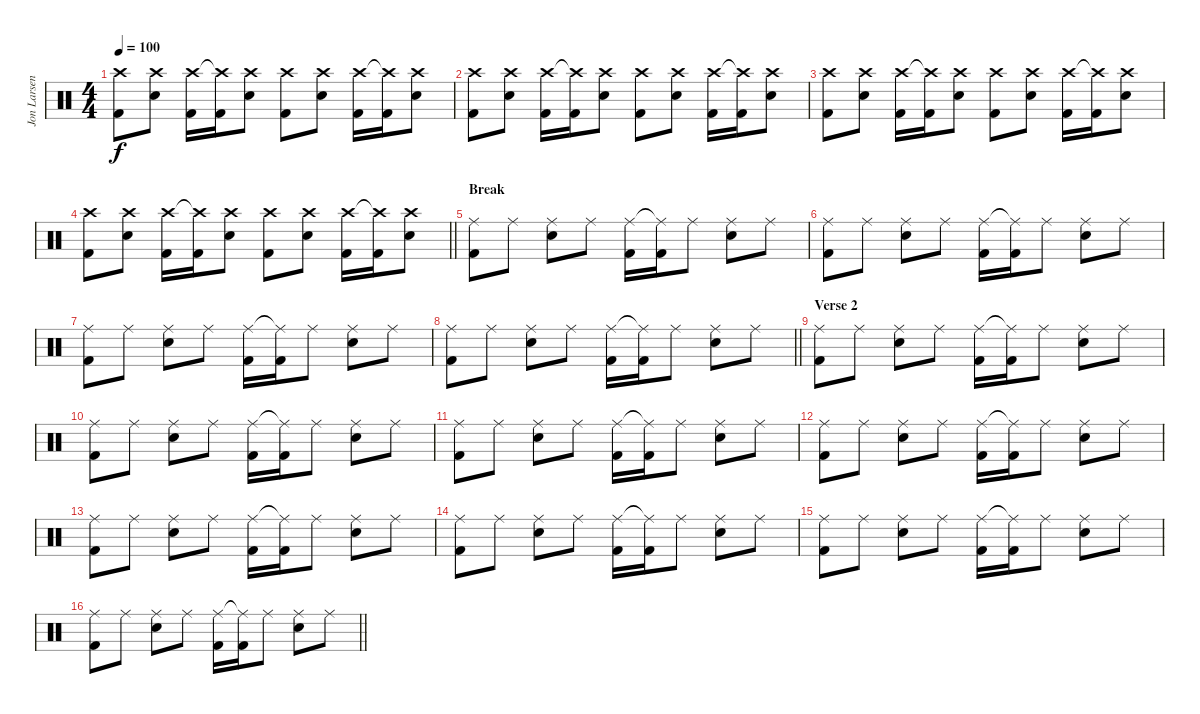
\track ("Jon Larsen" "Jon Larsen") {instrument percussion}
\staff {score}
\articulation defaults
\ts (4 4)
\tempo 100
\clef neutral
\ks c
("Crash high (hit)" "Kick (hit) 2").8{dy f} ("Crash high (hit)" "Snare (hit) 2").8 ("Crash high (hit)" "Kick (hit) 2").16 ("Crash high (hit)"{t} "Kick (hit) 2").16 ("Crash high (hit)" "Snare (hit) 2").8 ("Crash high (hit)" "Kick (hit) 2").8 ("Crash high (hit)" "Snare (hit) 2").8 ("Crash high (hit)" "Kick (hit) 2").16 ("Crash high (hit)"{t} "Kick (hit) 2").16 ("Crash high (hit)" "Snare (hit) 2").8 |
("Crash high (hit)" "Kick (hit) 2").8 ("Crash high (hit)" "Snare (hit) 2").8 ("Crash high (hit)" "Kick (hit) 2").16 ("Crash high (hit)"{t} "Kick (hit) 2").16 ("Crash high (hit)" "Snare (hit) 2").8 ("Crash high (hit)" "Kick (hit) 2").8 ("Crash high (hit)" "Snare (hit) 2").8 ("Crash high (hit)" "Kick (hit) 2").16 ("Crash high (hit)"{t} "Kick (hit) 2").16 ("Crash high (hit)" "Snare (hit) 2").8 |
("Crash high (hit)" "Kick (hit) 2").8 ("Crash high (hit)" "Snare (hit) 2").8 ("Crash high (hit)" "Kick (hit) 2").16 ("Crash high (hit)"{t} "Kick (hit) 2").16 ("Crash high (hit)" "Snare (hit) 2").8 ("Crash high (hit)" "Kick (hit) 2").8 ("Crash high (hit)" "Snare (hit) 2").8 ("Crash high (hit)" "Kick (hit) 2").16 ("Crash high (hit)"{t} "Kick (hit) 2").16 ("Crash high (hit)" "Snare (hit) 2").8 |
\barLineRight lightlight
("Crash high (hit)" "Kick (hit) 2").8 ("Crash high (hit)" "Snare (hit) 2").8 ("Crash high (hit)" "Kick (hit) 2").16 ("Crash high (hit)"{t} "Kick (hit) 2").16 ("Crash high (hit)" "Snare (hit) 2").8 ("Crash high (hit)" "Kick (hit) 2").8 ("Crash high (hit)" "Snare (hit) 2").8 ("Crash high (hit)" "Kick (hit) 2").16 ("Crash high (hit)"{t} "Kick (hit) 2").16 ("Crash high (hit)" "Snare (hit) 2").8 |
\section ("" "Break")
("Ride (middle)" "Kick (hit) 2").8 "Ride (middle)".8 ("Ride (middle)" "Snare (hit) 2").8 "Ride (middle)".8 ("Ride (middle)" "Kick (hit) 2").16 ("Ride (middle)"{t} "Kick (hit) 2").16 "Ride (middle)".8 ("Ride (middle)" "Snare (hit) 2").8 "Ride (middle)".8 |
("Ride (middle)" "Kick (hit) 2").8 "Ride (middle)".8 ("Ride (middle)" "Snare (hit) 2").8 "Ride (middle)".8 ("Ride (middle)" "Kick (hit) 2").16 ("Ride (middle)"{t} "Kick (hit) 2").16 "Ride (middle)".8 ("Ride (middle)" "Snare (hit) 2").8 "Ride (middle)".8 |
("Ride (middle)" "Kick (hit) 2").8 "Ride (middle)".8 ("Ride (middle)" "Snare (hit) 2").8 "Ride (middle)".8 ("Ride (middle)" "Kick (hit) 2").16 ("Ride (middle)"{t} "Kick (hit) 2").16 "Ride (middle)".8 ("Ride (middle)" "Snare (hit) 2").8 "Ride (middle)".8 |
\barLineRight lightlight
("Ride (middle)" "Kick (hit) 2").8 "Ride (middle)".8 ("Ride (middle)" "Snare (hit) 2").8 "Ride (middle)".8 ("Ride (middle)" "Kick (hit) 2").16 ("Ride (middle)"{t} "Kick (hit) 2").16 "Ride (middle)".8 ("Ride (middle)" "Snare (hit) 2").8 "Ride (middle)".8 |
\section ("" "Verse 2")
("Ride (middle)" "Kick (hit) 2").8 "Ride (middle)".8 ("Ride (middle)" "Snare (hit) 2").8 "Ride (middle)".8 ("Ride (middle)" "Kick (hit) 2").16 ("Ride (middle)"{t} "Kick (hit) 2").16 "Ride (middle)".8 ("Ride (middle)" "Snare (hit) 2").8 "Ride (middle)".8 |
("Ride (middle)" "Kick (hit) 2").8 "Ride (middle)".8 ("Ride (middle)" "Snare (hit) 2").8 "Ride (middle)".8 ("Ride (middle)" "Kick (hit) 2").16 ("Ride (middle)"{t} "Kick (hit) 2").16 "Ride (middle)".8 ("Ride (middle)" "Snare (hit) 2").8 "Ride (middle)".8 |
("Ride (middle)" "Kick (hit) 2").8 "Ride (middle)".8 ("Ride (middle)" "Snare (hit) 2").8 "Ride (middle)".8 ("Ride (middle)" "Kick (hit) 2").16 ("Ride (middle)"{t} "Kick (hit) 2").16 "Ride (middle)".8 ("Ride (middle)" "Snare (hit) 2").8 "Ride (middle)".8 |
("Ride (middle)" "Kick (hit) 2").8 "Ride (middle)".8 ("Ride (middle)" "Snare (hit) 2").8 "Ride (middle)".8 ("Ride (middle)" "Kick (hit) 2").16 ("Ride (middle)"{t} "Kick (hit) 2").16 "Ride (middle)".8 ("Ride (middle)" "Snare (hit) 2").8 "Ride (middle)".8 |
("Ride (middle)" "Kick (hit) 2").8 "Ride (middle)".8 ("Ride (middle)" "Snare (hit) 2").8 "Ride (middle)".8 ("Ride (middle)" "Kick (hit) 2").16 ("Ride (middle)"{t} "Kick (hit) 2").16 "Ride (middle)".8 ("Ride (middle)" "Snare (hit) 2").8 "Ride (middle)".8 |
("Ride (middle)" "Kick (hit) 2").8 "Ride (middle)".8 ("Ride (middle)" "Snare (hit) 2").8 "Ride (middle)".8 ("Ride (middle)" "Kick (hit) 2").16 ("Ride (middle)"{t} "Kick (hit) 2").16 "Ride (middle)".8 ("Ride (middle)" "Snare (hit) 2").8 "Ride (middle)".8 |
("Ride (middle)" "Kick (hit) 2").8 "Ride (middle)".8 ("Ride (middle)" "Snare (hit) 2").8 "Ride (middle)".8 ("Ride (middle)" "Kick (hit) 2").16 ("Ride (middle)"{t} "Kick (hit) 2").16 "Ride (middle)".8 ("Ride (middle)" "Snare (hit) 2").8 "Ride (middle)".8 |
\barLineRight lightlight
("Ride (middle)" "Kick (hit) 2").8 "Ride (middle)".8 ("Ride (middle)" "Snare (hit) 2").8 "Ride (middle)".8 ("Ride (middle)" "Kick (hit) 2").16 ("Ride (middle)"{t} "Kick (hit) 2").16 "Ride (middle)".8 ("Ride (middle)" "Snare (hit) 2").8 "Ride (middle)".8
